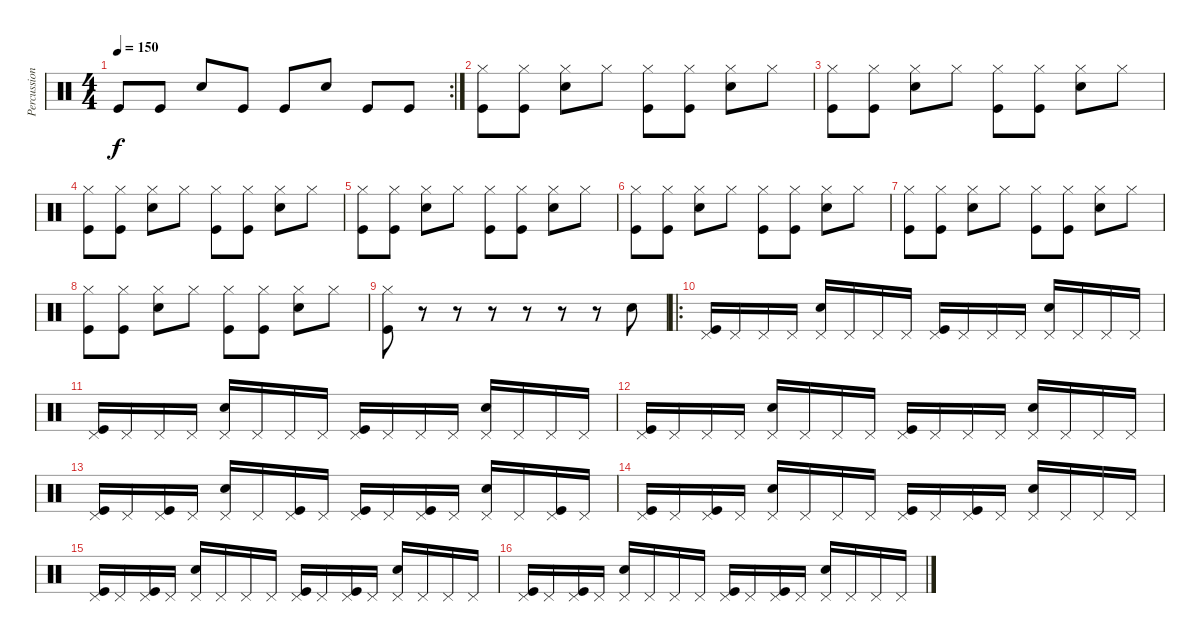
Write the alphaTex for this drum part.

\track ("Percussion" "Percussion") {instrument percussion}
\staff {score}
\articulation defaults
\rc 2
\ts (4 4)
\tempo 150
\clef neutral
\ks c "Kick (hit)".8{dy f} "Kick (hit)".8 "Electric Snare (hit)".8 "Kick (hit)".8 "Kick (hit)".8 "Electric Snare (hit)".8 "Kick (hit)".8 "Kick (hit)".8
|
("Hi-Hat (closed)" "Kick (hit)").8 ("Hi-Hat (closed)" "Kick (hit)").8 ("Hi-Hat (closed)" "Electric Snare (hit)").8 "Hi-Hat (closed)".8 ("Hi-Hat (closed)" "Kick (hit)").8 ("Hi-Hat (closed)" "Kick (hit)").8 ("Hi-Hat (closed)" "Electric Snare (hit)").8 "Hi-Hat (closed)".8 |
("Hi-Hat (closed)" "Kick (hit)").8 ("Hi-Hat (closed)" "Kick (hit)").8 ("Hi-Hat (closed)" "Electric Snare (hit)").8 "Hi-Hat (closed)".8 ("Hi-Hat (closed)" "Kick (hit)").8 ("Hi-Hat (closed)" "Kick (hit)").8 ("Hi-Hat (closed)" "Electric Snare (hit)").8 "Hi-Hat (closed)".8 |
("Hi-Hat (closed)" "Kick (hit)").8 ("Hi-Hat (closed)" "Kick (hit)").8 ("Hi-Hat (closed)" "Electric Snare (hit)").8 "Hi-Hat (closed)".8 ("Hi-Hat (closed)" "Kick (hit)").8 ("Hi-Hat (closed)" "Kick (hit)").8 ("Hi-Hat (closed)" "Electric Snare (hit)").8 "Hi-Hat (closed)".8 |
("Hi-Hat (closed)" "Kick (hit)").8 ("Hi-Hat (closed)" "Kick (hit)").8 ("Hi-Hat (closed)" "Electric Snare (hit)").8 "Hi-Hat (closed)".8 ("Hi-Hat (closed)" "Kick (hit)").8 ("Hi-Hat (closed)" "Kick (hit)").8 ("Hi-Hat (closed)" "Electric Snare (hit)").8 "Hi-Hat (closed)".8 |
("Hi-Hat (closed)" "Kick (hit)").8 ("Hi-Hat (closed)" "Kick (hit)").8 ("Hi-Hat (closed)" "Electric Snare (hit)").8 "Hi-Hat (closed)".8 ("Hi-Hat (closed)" "Kick (hit)").8 ("Hi-Hat (closed)" "Kick (hit)").8 ("Hi-Hat (closed)" "Electric Snare (hit)").8 "Hi-Hat (closed)".8 |
("Hi-Hat (closed)" "Kick (hit)").8 ("Hi-Hat (closed)" "Kick (hit)").8 ("Hi-Hat (closed)" "Electric Snare (hit)").8 "Hi-Hat (closed)".8 ("Hi-Hat (closed)" "Kick (hit)").8 ("Hi-Hat (closed)" "Kick (hit)").8 ("Hi-Hat (closed)" "Electric Snare (hit)").8 "Hi-Hat (closed)".8 |
("Hi-Hat (closed)" "Kick (hit)").8 ("Hi-Hat (closed)" "Kick (hit)").8 ("Hi-Hat (closed)" "Electric Snare (hit)").8 "Hi-Hat (closed)".8 ("Hi-Hat (closed)" "Kick (hit)").8 ("Hi-Hat (closed)" "Kick (hit)").8 ("Hi-Hat (closed)" "Electric Snare (hit)").8 "Hi-Hat (closed)".8 |
("Hi-Hat (closed)" "Kick (hit)").8 r.8 r.8 r.8 r.8 r.8 r.8 "Electric Snare (hit)".8 |
\ro
("Pedal Hi-Hat (hit)" "Kick (hit)").16 "Pedal Hi-Hat (hit)".16 "Pedal Hi-Hat (hit)".16 "Pedal Hi-Hat (hit)".16 ("Pedal Hi-Hat (hit)" "Electric Snare (hit)").16 "Pedal Hi-Hat (hit)".16 "Pedal Hi-Hat (hit)".16 "Pedal Hi-Hat (hit)".16 ("Pedal Hi-Hat (hit)" "Kick (hit)").16 "Pedal Hi-Hat (hit)".16 "Pedal Hi-Hat (hit)".16 "Pedal Hi-Hat (hit)".16 ("Pedal Hi-Hat (hit)" "Electric Snare (hit)").16 "Pedal Hi-Hat (hit)".16 "Pedal Hi-Hat (hit)".16 "Pedal Hi-Hat (hit)".16 |
("Pedal Hi-Hat (hit)" "Kick (hit)").16 "Pedal Hi-Hat (hit)".16 "Pedal Hi-Hat (hit)".16 "Pedal Hi-Hat (hit)".16 ("Pedal Hi-Hat (hit)" "Electric Snare (hit)").16 "Pedal Hi-Hat (hit)".16 "Pedal Hi-Hat (hit)".16 "Pedal Hi-Hat (hit)".16 ("Pedal Hi-Hat (hit)" "Kick (hit)").16 "Pedal Hi-Hat (hit)".16 "Pedal Hi-Hat (hit)".16 "Pedal Hi-Hat (hit)".16 ("Pedal Hi-Hat (hit)" "Electric Snare (hit)").16 "Pedal Hi-Hat (hit)".16 "Pedal Hi-Hat (hit)".16 "Pedal Hi-Hat (hit)".16 |
("Pedal Hi-Hat (hit)" "Kick (hit)").16 "Pedal Hi-Hat (hit)".16 "Pedal Hi-Hat (hit)".16 "Pedal Hi-Hat (hit)".16 ("Pedal Hi-Hat (hit)" "Electric Snare (hit)").16 "Pedal Hi-Hat (hit)".16 "Pedal Hi-Hat (hit)".16 "Pedal Hi-Hat (hit)".16 ("Pedal Hi-Hat (hit)" "Kick (hit)").16 "Pedal Hi-Hat (hit)".16 "Pedal Hi-Hat (hit)".16 "Pedal Hi-Hat (hit)".16 ("Pedal Hi-Hat (hit)" "Electric Snare (hit)").16 "Pedal Hi-Hat (hit)".16 "Pedal Hi-Hat (hit)".16 "Pedal Hi-Hat (hit)".16 |
("Pedal Hi-Hat (hit)" "Kick (hit)").16 "Pedal Hi-Hat (hit)".16 ("Pedal Hi-Hat (hit)" "Kick (hit)").16 "Pedal Hi-Hat (hit)".16 ("Pedal Hi-Hat (hit)" "Electric Snare (hit)").16 "Pedal Hi-Hat (hit)".16 ("Pedal Hi-Hat (hit)" "Kick (hit)").16 "Pedal Hi-Hat (hit)".16 ("Pedal Hi-Hat (hit)" "Kick (hit)").16 "Pedal Hi-Hat (hit)".16 ("Pedal Hi-Hat (hit)" "Kick (hit)").16 "Pedal Hi-Hat (hit)".16 ("Pedal Hi-Hat (hit)" "Electric Snare (hit)").16 "Pedal Hi-Hat (hit)".16 ("Pedal Hi-Hat (hit)" "Kick (hit)").16 "Pedal Hi-Hat (hit)".16 |
("Pedal Hi-Hat (hit)" "Kick (hit)").16 "Pedal Hi-Hat (hit)".16 ("Pedal Hi-Hat (hit)" "Kick (hit)").16 "Pedal Hi-Hat (hit)".16 ("Pedal Hi-Hat (hit)" "Electric Snare (hit)").16 "Pedal Hi-Hat (hit)".16 "Pedal Hi-Hat (hit)".16 "Pedal Hi-Hat (hit)".16 ("Pedal Hi-Hat (hit)" "Kick (hit)").16 "Pedal Hi-Hat (hit)".16 ("Pedal Hi-Hat (hit)" "Kick (hit)").16 "Pedal Hi-Hat (hit)".16 ("Pedal Hi-Hat (hit)" "Electric Snare (hit)").16 "Pedal Hi-Hat (hit)".16 "Pedal Hi-Hat (hit)".16 "Pedal Hi-Hat (hit)".16 |
("Pedal Hi-Hat (hit)" "Kick (hit)").16 "Pedal Hi-Hat (hit)".16 ("Pedal Hi-Hat (hit)" "Kick (hit)").16 "Pedal Hi-Hat (hit)".16 ("Pedal Hi-Hat (hit)" "Electric Snare (hit)").16 "Pedal Hi-Hat (hit)".16 "Pedal Hi-Hat (hit)".16 "Pedal Hi-Hat (hit)".16 ("Pedal Hi-Hat (hit)" "Kick (hit)").16 "Pedal Hi-Hat (hit)".16 ("Pedal Hi-Hat (hit)" "Kick (hit)").16 "Pedal Hi-Hat (hit)".16 ("Pedal Hi-Hat (hit)" "Electric Snare (hit)").16 "Pedal Hi-Hat (hit)".16 "Pedal Hi-Hat (hit)".16 "Pedal Hi-Hat (hit)".16 |
("Pedal Hi-Hat (hit)" "Kick (hit)").16 "Pedal Hi-Hat (hit)".16 ("Pedal Hi-Hat (hit)" "Kick (hit)").16 "Pedal Hi-Hat (hit)".16 ("Pedal Hi-Hat (hit)" "Electric Snare (hit)").16 "Pedal Hi-Hat (hit)".16 "Pedal Hi-Hat (hit)".16 "Pedal Hi-Hat (hit)".16 ("Pedal Hi-Hat (hit)" "Kick (hit)").16 "Pedal Hi-Hat (hit)".16 ("Pedal Hi-Hat (hit)" "Kick (hit)").16 "Pedal Hi-Hat (hit)".16 ("Pedal Hi-Hat (hit)" "Electric Snare (hit)").16 "Pedal Hi-Hat (hit)".16 "Pedal Hi-Hat (hit)".16 "Pedal Hi-Hat (hit)".16
